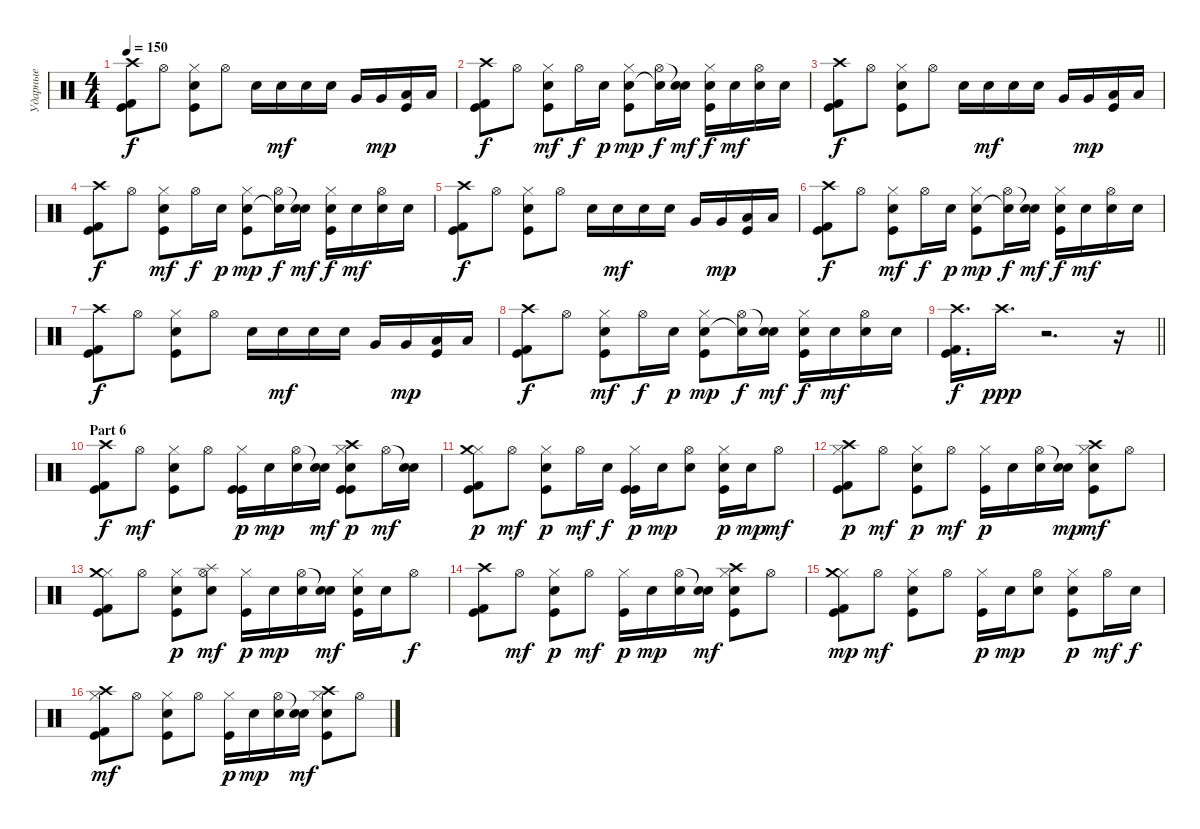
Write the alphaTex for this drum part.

\track ("Ударные" "Ударные") {instrument percussion}
\staff {score}
\articulation defaults
\ts (4 4)
\tempo 150
\clef neutral
\ks c
("Crash high (hit)" "Kick (hit) 2" "Kick (hit)").8{dy f} "Hi-Hat (open)".8 ("Hi-Hat (closed)" "Electric Snare (hit)" "Kick (hit)").8 "Hi-Hat (open)".8 "Electric Snare (hit)".16 "Electric Snare (hit)".16{dy mf} "Electric Snare (hit)".16 "Electric Snare (hit)".16 "Very Low Tom (hit)".16 "Very Low Tom (hit)".16{dy mp} ("Low Floor Tom (hit)" "Kick (hit)").16 "Low Floor Tom (hit)".16 |
("Crash high (hit)" "Kick (hit) 2" "Kick (hit)").8{dy f} "Hi-Hat (open)".8 ("Hi-Hat (closed)" "Electric Snare (hit)" "Kick (hit)").8{dy mf} "Hi-Hat (open)".16{dy f} "Electric Snare (hit)".16{dy p} ("Hi-Hat (closed)" "Snare (hit) 2" "Kick (hit)").8{dy mp} ("Hi-Hat (open)" "Snare (hit)"{t}).16{dy f} ("Snare (hit)"{t} "Electric Snare (hit)").16{dy mf} ("Hi-Hat (closed)" "Electric Snare (hit)" "Kick (hit)").16{dy f} "Electric Snare (hit)".16{dy mf} ("Hi-Hat (open)" "Electric Snare (hit)").16 "Electric Snare (hit)".16 |
("Crash high (hit)" "Kick (hit) 2" "Kick (hit)").8{dy f} "Hi-Hat (open)".8 ("Hi-Hat (closed)" "Electric Snare (hit)" "Kick (hit)").8 "Hi-Hat (open)".8 "Electric Snare (hit)".16 "Electric Snare (hit)".16{dy mf} "Electric Snare (hit)".16 "Electric Snare (hit)".16 "Very Low Tom (hit)".16 "Very Low Tom (hit)".16{dy mp} ("Low Floor Tom (hit)" "Kick (hit)").16 "Low Floor Tom (hit)".16 |
("Crash high (hit)" "Kick (hit) 2" "Kick (hit)").8{dy f} "Hi-Hat (open)".8 ("Hi-Hat (closed)" "Electric Snare (hit)" "Kick (hit)").8{dy mf} "Hi-Hat (open)".16{dy f} "Electric Snare (hit)".16{dy p} ("Hi-Hat (closed)" "Snare (hit) 2" "Kick (hit)").8{dy mp} ("Hi-Hat (open)" "Snare (hit)"{t}).16{dy f} ("Snare (hit)"{t} "Electric Snare (hit)").16{dy mf} ("Hi-Hat (closed)" "Electric Snare (hit)" "Kick (hit)").16{dy f} "Electric Snare (hit)".16{dy mf} ("Hi-Hat (open)" "Electric Snare (hit)").16 "Electric Snare (hit)".16 |
("Crash high (hit)" "Kick (hit) 2" "Kick (hit)").8{dy f} "Hi-Hat (open)".8 ("Hi-Hat (closed)" "Electric Snare (hit)" "Kick (hit)").8 "Hi-Hat (open)".8 "Electric Snare (hit)".16 "Electric Snare (hit)".16{dy mf} "Electric Snare (hit)".16 "Electric Snare (hit)".16 "Very Low Tom (hit)".16 "Very Low Tom (hit)".16{dy mp} ("Low Floor Tom (hit)" "Kick (hit)").16 "Low Floor Tom (hit)".16 |
("Crash high (hit)" "Kick (hit) 2" "Kick (hit)").8{dy f} "Hi-Hat (open)".8 ("Hi-Hat (closed)" "Electric Snare (hit)" "Kick (hit)").8{dy mf} "Hi-Hat (open)".16{dy f} "Electric Snare (hit)".16{dy p} ("Hi-Hat (closed)" "Snare (hit) 2" "Kick (hit)").8{dy mp} ("Hi-Hat (open)" "Snare (hit)"{t}).16{dy f} ("Snare (hit)"{t} "Electric Snare (hit)").16{dy mf} ("Hi-Hat (closed)" "Electric Snare (hit)" "Kick (hit)").16{dy f} "Electric Snare (hit)".16{dy mf} ("Hi-Hat (open)" "Electric Snare (hit)").16 "Electric Snare (hit)".16 |
("Crash high (hit)" "Kick (hit) 2" "Kick (hit)").8{dy f} "Hi-Hat (open)".8 ("Hi-Hat (closed)" "Electric Snare (hit)" "Kick (hit)").8 "Hi-Hat (open)".8 "Electric Snare (hit)".16 "Electric Snare (hit)".16{dy mf} "Electric Snare (hit)".16 "Electric Snare (hit)".16 "Very Low Tom (hit)".16 "Very Low Tom (hit)".16{dy mp} ("Low Floor Tom (hit)" "Kick (hit)").16 "Low Floor Tom (hit)".16 |
("Crash high (hit)" "Kick (hit) 2" "Kick (hit)").8{dy f} "Hi-Hat (open)".8 ("Hi-Hat (closed)" "Electric Snare (hit)" "Kick (hit)").8{dy mf} "Hi-Hat (open)".16{dy f} "Electric Snare (hit)".16{dy p} ("Hi-Hat (closed)" "Snare (hit) 2" "Kick (hit)").8{dy mp} ("Hi-Hat (open)" "Snare (hit)"{t}).16{dy f} ("Snare (hit)"{t} "Electric Snare (hit)").16{dy mf} ("Hi-Hat (closed)" "Electric Snare (hit)" "Kick (hit)").16{dy f} "Electric Snare (hit)".16{dy mf} ("Hi-Hat (open)" "Electric Snare (hit)").16 "Electric Snare (hit)".16 |
\barLineRight lightlight
("Crash high (hit)" "Kick (hit)" "Kick (hit) 2").16{d dy f} "Crash high (hit)".16{d dy ppp} r.2{d} r.16 |
\section ("" "Part 6")
("Kick (hit) 2" "Kick (hit)" "Crash high (hit)").8{dy f} "Hi-Hat (open)".8{dy mf} ("Kick (hit)" "Hi-Hat (closed)" "Electric Snare (hit)").8 "Hi-Hat (open)".8 ("Kick (hit)" "Hi-Hat (closed)" "Kick (hit)").16{dy p} "Electric Snare (hit)".16{dy mp} ("Hi-Hat (open)" "Electric Snare (hit)").16 ("Snare (hit)"{t} "Electric Snare (hit)").16{dy mf} ("Kick (hit)" "Hi-Hat (closed)" "Electric Snare (hit)" "Crash high (hit)" "Kick (hit)").8{dy p} "Hi-Hat (open)".16{dy mf} ("Snare (hit)"{t} "Snare (hit) 2").16 |
("Kick (hit) 2" "Hi-Hat (closed)" "Kick (hit)" "Crash medium (hit)").8{dy p} "Hi-Hat (open)".8{dy mf} ("Kick (hit)" "Hi-Hat (closed)" "Electric Snare (hit)").8{dy p} "Hi-Hat (open)".16{dy mf} "Electric Snare (hit)".16{dy f} ("Kick (hit)" "Hi-Hat (closed)" "Kick (hit)").16{dy p} "Electric Snare (hit)".16{dy mp} ("Hi-Hat (open)" "Electric Snare (hit)").8 ("Kick (hit)" "Hi-Hat (closed)" "Electric Snare (hit)").16{dy p} "Electric Snare (hit)".16{dy mp} "Hi-Hat (open)".8{dy mf} |
("Kick (hit) 2" "Kick (hit)" "Hi-Hat (closed)" "Crash high (hit)").8{dy p} "Hi-Hat (open)".8{dy mf} ("Kick (hit)" "Hi-Hat (closed)" "Electric Snare (hit)").8{dy p} "Hi-Hat (open)".8{dy mf} ("Kick (hit)" "Hi-Hat (closed)").16{dy p} "Electric Snare (hit)".16 ("Hi-Hat (open)" "Electric Snare (hit)").16 ("Snare (hit)"{t} "Electric Snare (hit)").16{dy mp} ("Kick (hit)" "Hi-Hat (closed)" "Electric Snare (hit)" "Crash high (hit)").8{dy mf} "Hi-Hat (open)".8 |
("Kick (hit) 2" "Kick (hit)" "Hi-Hat (closed)" "Crash medium (hit)").8 "Hi-Hat (open)".8 ("Kick (hit)" "Hi-Hat (closed)" "Electric Snare (hit)").8{dy p} ("Splash (hit)" "Hi-Hat (open)" "Electric Snare (hit)").8{dy mf} ("Kick (hit)" "Hi-Hat (closed)").16{dy p} "Electric Snare (hit)".16{dy mp} ("Hi-Hat (open)" "Electric Snare (hit)").16 ("Snare (hit)"{t} "Electric Snare (hit)").16{dy mf} ("Kick (hit)" "Hi-Hat (closed)" "Electric Snare (hit)").16 "Electric Snare (hit)".16 "Hi-Hat (open)".8{dy f} |
("Kick (hit) 2" "Kick (hit)" "Crash high (hit)").8 "Hi-Hat (open)".8{dy mf} ("Kick (hit)" "Hi-Hat (closed)" "Electric Snare (hit)").8{dy p} "Hi-Hat (open)".8{dy mf} ("Kick (hit)" "Hi-Hat (closed)").16{dy p} "Electric Snare (hit)".16{dy mp} ("Hi-Hat (open)" "Electric Snare (hit)").16 ("Snare (hit)"{t} "Electric Snare (hit)").16{dy mf} ("Kick (hit)" "Hi-Hat (closed)" "Electric Snare (hit)" "Crash high (hit)").8 "Hi-Hat (open)".8 |
("Kick (hit) 2" "Hi-Hat (closed)" "Kick (hit)" "Crash medium (hit)").8{dy mp} "Hi-Hat (open)".8{dy mf} ("Kick (hit)" "Hi-Hat (closed)" "Electric Snare (hit)").8 "Hi-Hat (open)".8 ("Kick (hit)" "Hi-Hat (closed)").16{dy p} "Electric Snare (hit)".16{dy mp} ("Hi-Hat (open)" "Electric Snare (hit)").8 ("Kick (hit)" "Hi-Hat (closed)" "Electric Snare (hit)").8{dy p} "Hi-Hat (open)".16{dy mf} "Electric Snare (hit)".16{dy f} |
("Kick (hit) 2" "Kick (hit)" "Hi-Hat (closed)" "Crash high (hit)").8{dy mf} "Hi-Hat (open)".8 ("Kick (hit)" "Hi-Hat (closed)" "Electric Snare (hit)").8 "Hi-Hat (open)".8 ("Kick (hit)" "Hi-Hat (closed)").16{dy p} "Electric Snare (hit)".16{dy mp} ("Hi-Hat (open)" "Electric Snare (hit)").16 ("Snare (hit)"{t} "Electric Snare (hit)").16{dy mf} ("Kick (hit)" "Hi-Hat (closed)" "Electric Snare (hit)" "Crash high (hit)").8 "Hi-Hat (open)".8
